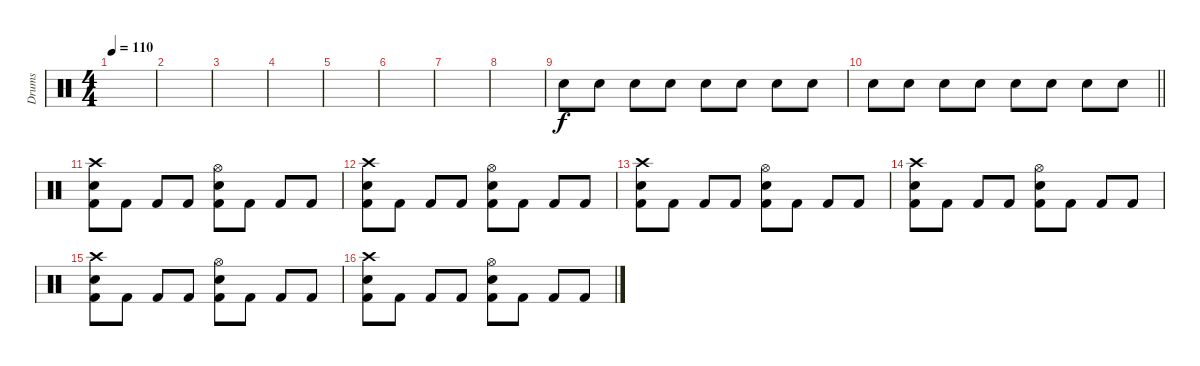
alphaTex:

\track ("Drums" "Drums") {instrument percussion}
\staff {score}
\articulation defaults
\ts (4 4)
\tempo 110
\clef neutral
\ks c
|
|
|
|
|
|
|
|
"Snare (hit) 2".8{volume 13} "Snare (hit) 2".8 "Snare (hit) 2".8 "Snare (hit) 2".8 "Snare (hit) 2".8 "Snare (hit) 2".8 "Snare (hit) 2".8 "Snare (hit) 2".8 |
\barLineRight lightlight "Snare (hit) 2".8 "Snare (hit) 2".8 "Snare (hit) 2".8 "Snare (hit) 2".8 "Snare (hit) 2".8 "Snare (hit) 2".8 "Snare (hit) 2".8 "Snare (hit) 2".8
|
\section ("" "")
("Kick (hit) 2" "Crash high (hit)" "Snare (hit) 2").8 "Kick (hit) 2".8 "Kick (hit) 2".8 "Kick (hit) 2".8 ("Kick (hit) 2" "Hi-Hat (open)" "Snare (hit) 2").8 "Kick (hit) 2".8 "Kick (hit) 2".8 "Kick (hit) 2".8 |
("Kick (hit) 2" "Crash high (hit)" "Snare (hit) 2").8 "Kick (hit) 2".8 "Kick (hit) 2".8 "Kick (hit) 2".8 ("Kick (hit) 2" "Hi-Hat (open)" "Snare (hit) 2").8 "Kick (hit) 2".8 "Kick (hit) 2".8 "Kick (hit) 2".8 |
("Kick (hit) 2" "Crash high (hit)" "Snare (hit) 2").8 "Kick (hit) 2".8 "Kick (hit) 2".8 "Kick (hit) 2".8 ("Kick (hit) 2" "Hi-Hat (open)" "Snare (hit) 2").8 "Kick (hit) 2".8 "Kick (hit) 2".8 "Kick (hit) 2".8 |
("Kick (hit) 2" "Crash high (hit)" "Snare (hit) 2").8 "Kick (hit) 2".8 "Kick (hit) 2".8 "Kick (hit) 2".8 ("Kick (hit) 2" "Hi-Hat (open)" "Snare (hit) 2").8 "Kick (hit) 2".8 "Kick (hit) 2".8 "Kick (hit) 2".8 |
("Kick (hit) 2" "Crash high (hit)" "Snare (hit) 2").8 "Kick (hit) 2".8 "Kick (hit) 2".8 "Kick (hit) 2".8 ("Kick (hit) 2" "Hi-Hat (open)" "Snare (hit) 2").8 "Kick (hit) 2".8 "Kick (hit) 2".8 "Kick (hit) 2".8 |
("Kick (hit) 2" "Crash high (hit)" "Snare (hit) 2").8 "Kick (hit) 2".8 "Kick (hit) 2".8 "Kick (hit) 2".8 ("Kick (hit) 2" "Hi-Hat (open)" "Snare (hit) 2").8 "Kick (hit) 2".8 "Kick (hit) 2".8 "Kick (hit) 2".8
